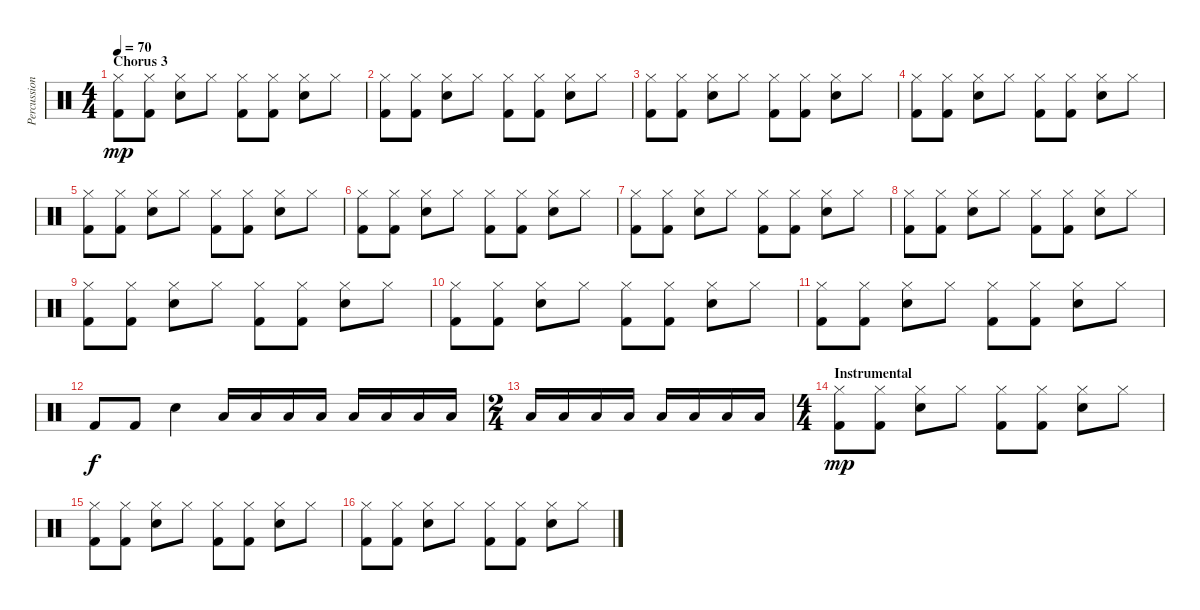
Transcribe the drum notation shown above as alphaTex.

\track ("Percussions" "Percussion") {instrument percussion}
\staff {score}
\articulation defaults
\ts (4 4)
\section ("" "Chorus 3")
\tempo 70
\clef neutral
\ks c
("Kick (hit) 2" "Hi-Hat (closed)").8{dy mp} ("Kick (hit) 2" "Hi-Hat (closed)").8 ("Electric Snare (hit)" "Hi-Hat (closed)").8 "Hi-Hat (closed)".8 ("Kick (hit) 2" "Hi-Hat (closed)").8 ("Kick (hit) 2" "Hi-Hat (closed)").8 ("Electric Snare (hit)" "Hi-Hat (closed)").8 "Hi-Hat (closed)".8 |
("Kick (hit) 2" "Hi-Hat (closed)").8 ("Kick (hit) 2" "Hi-Hat (closed)").8 ("Electric Snare (hit)" "Hi-Hat (closed)").8 "Hi-Hat (closed)".8 ("Kick (hit) 2" "Hi-Hat (closed)").8 ("Kick (hit) 2" "Hi-Hat (closed)").8 ("Electric Snare (hit)" "Hi-Hat (closed)").8 "Hi-Hat (closed)".8 |
("Kick (hit) 2" "Hi-Hat (closed)").8 ("Kick (hit) 2" "Hi-Hat (closed)").8 ("Electric Snare (hit)" "Hi-Hat (closed)").8 "Hi-Hat (closed)".8 ("Kick (hit) 2" "Hi-Hat (closed)").8 ("Kick (hit) 2" "Hi-Hat (closed)").8 ("Electric Snare (hit)" "Hi-Hat (closed)").8 "Hi-Hat (closed)".8 |
("Kick (hit) 2" "Hi-Hat (closed)").8 ("Kick (hit) 2" "Hi-Hat (closed)").8 ("Electric Snare (hit)" "Hi-Hat (closed)").8 "Hi-Hat (closed)".8 ("Kick (hit) 2" "Hi-Hat (closed)").8 ("Kick (hit) 2" "Hi-Hat (closed)").8 ("Electric Snare (hit)" "Hi-Hat (closed)").8 "Hi-Hat (closed)".8 |
("Kick (hit) 2" "Hi-Hat (closed)").8 ("Kick (hit) 2" "Hi-Hat (closed)").8 ("Electric Snare (hit)" "Hi-Hat (closed)").8 "Hi-Hat (closed)".8 ("Kick (hit) 2" "Hi-Hat (closed)").8 ("Kick (hit) 2" "Hi-Hat (closed)").8 ("Electric Snare (hit)" "Hi-Hat (closed)").8 "Hi-Hat (closed)".8 |
("Kick (hit) 2" "Hi-Hat (closed)").8 ("Kick (hit) 2" "Hi-Hat (closed)").8 ("Electric Snare (hit)" "Hi-Hat (closed)").8 "Hi-Hat (closed)".8 ("Kick (hit) 2" "Hi-Hat (closed)").8 ("Kick (hit) 2" "Hi-Hat (closed)").8 ("Electric Snare (hit)" "Hi-Hat (closed)").8 "Hi-Hat (closed)".8 |
("Kick (hit) 2" "Hi-Hat (closed)").8 ("Kick (hit) 2" "Hi-Hat (closed)").8 ("Electric Snare (hit)" "Hi-Hat (closed)").8 "Hi-Hat (closed)".8 ("Kick (hit) 2" "Hi-Hat (closed)").8 ("Kick (hit) 2" "Hi-Hat (closed)").8 ("Electric Snare (hit)" "Hi-Hat (closed)").8 "Hi-Hat (closed)".8 |
("Kick (hit) 2" "Hi-Hat (closed)").8 ("Kick (hit) 2" "Hi-Hat (closed)").8 ("Electric Snare (hit)" "Hi-Hat (closed)").8 "Hi-Hat (closed)".8 ("Kick (hit) 2" "Hi-Hat (closed)").8 ("Kick (hit) 2" "Hi-Hat (closed)").8 ("Electric Snare (hit)" "Hi-Hat (closed)").8 "Hi-Hat (closed)".8 |
("Kick (hit) 2" "Hi-Hat (closed)").8 ("Kick (hit) 2" "Hi-Hat (closed)").8 ("Electric Snare (hit)" "Hi-Hat (closed)").8 "Hi-Hat (closed)".8 ("Kick (hit) 2" "Hi-Hat (closed)").8 ("Kick (hit) 2" "Hi-Hat (closed)").8 ("Electric Snare (hit)" "Hi-Hat (closed)").8 "Hi-Hat (closed)".8 |
("Kick (hit) 2" "Hi-Hat (closed)").8 ("Kick (hit) 2" "Hi-Hat (closed)").8 ("Electric Snare (hit)" "Hi-Hat (closed)").8 "Hi-Hat (closed)".8 ("Kick (hit) 2" "Hi-Hat (closed)").8 ("Kick (hit) 2" "Hi-Hat (closed)").8 ("Electric Snare (hit)" "Hi-Hat (closed)").8 "Hi-Hat (closed)".8 |
("Kick (hit) 2" "Hi-Hat (closed)").8 ("Kick (hit) 2" "Hi-Hat (closed)").8 ("Electric Snare (hit)" "Hi-Hat (closed)").8 "Hi-Hat (closed)".8 ("Kick (hit) 2" "Hi-Hat (closed)").8 ("Kick (hit) 2" "Hi-Hat (closed)").8 ("Electric Snare (hit)" "Hi-Hat (closed)").8 "Hi-Hat (closed)".8 |
"Kick (hit) 2".8{dy f} "Kick (hit) 2".8 "Electric Snare (hit)".4 "Low Tom (hit)".16{volume 0} "Low Tom (hit)".16{volume 13} "Low Tom (hit)".16 "Low Tom (hit)".16 "Low Tom (hit)".16 "Low Tom (hit)".16 "Low Tom (hit)".16 "Low Tom (hit)".16 |
\ts (2 4)
"Low Tom (hit)".16 "Low Tom (hit)".16 "Low Tom (hit)".16 "Low Tom (hit)".16 "Low Tom (hit)".16 "Low Tom (hit)".16 "Low Tom (hit)".16 "Low Tom (hit)".16 |
\ts (4 4)
\section ("" "Instrumental")
("Kick (hit) 2" "Hi-Hat (closed)").8{dy mp} ("Kick (hit) 2" "Hi-Hat (closed)").8 ("Electric Snare (hit)" "Hi-Hat (closed)").8 "Hi-Hat (closed)".8 ("Kick (hit) 2" "Hi-Hat (closed)").8 ("Kick (hit) 2" "Hi-Hat (closed)").8 ("Electric Snare (hit)" "Hi-Hat (closed)").8 "Hi-Hat (closed)".8 |
("Kick (hit) 2" "Hi-Hat (closed)").8 ("Kick (hit) 2" "Hi-Hat (closed)").8 ("Electric Snare (hit)" "Hi-Hat (closed)").8 "Hi-Hat (closed)".8 ("Kick (hit) 2" "Hi-Hat (closed)").8 ("Kick (hit) 2" "Hi-Hat (closed)").8 ("Electric Snare (hit)" "Hi-Hat (closed)").8 "Hi-Hat (closed)".8 |
("Kick (hit) 2" "Hi-Hat (closed)").8 ("Kick (hit) 2" "Hi-Hat (closed)").8 ("Electric Snare (hit)" "Hi-Hat (closed)").8 "Hi-Hat (closed)".8 ("Kick (hit) 2" "Hi-Hat (closed)").8 ("Kick (hit) 2" "Hi-Hat (closed)").8 ("Electric Snare (hit)" "Hi-Hat (closed)").8 "Hi-Hat (closed)".8
